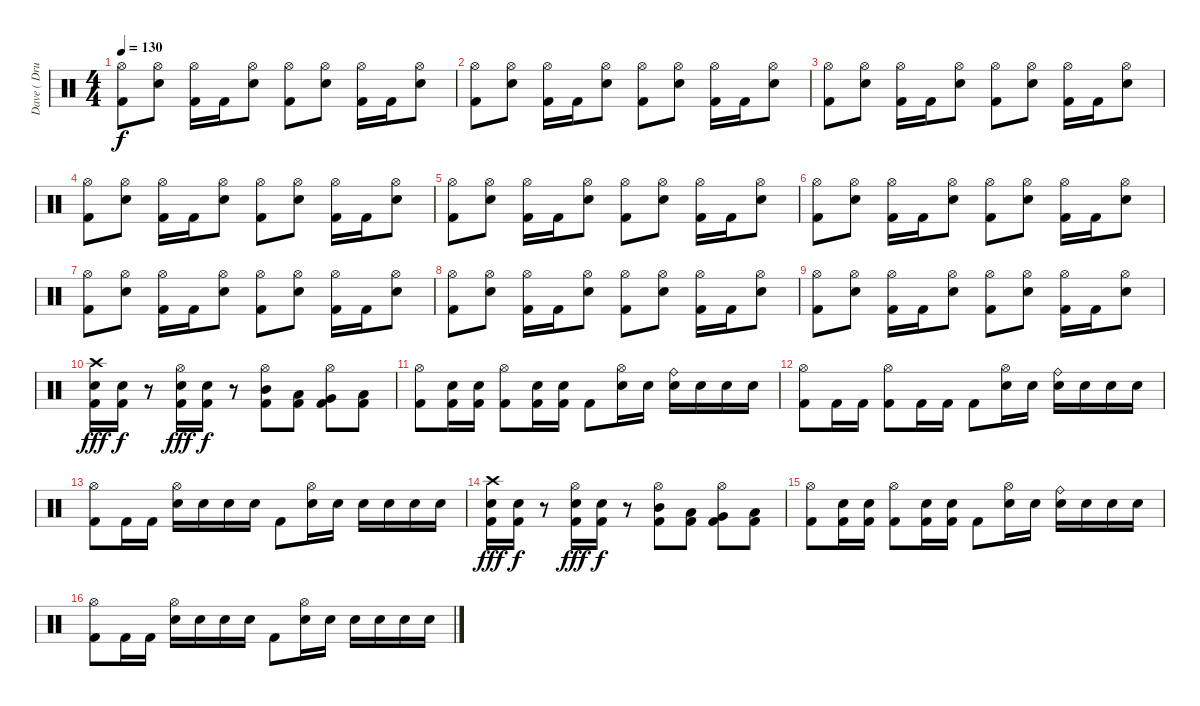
\track ("Dave ( Drumm )" "Dave ( Dru") {instrument percussion}
\staff {score}
\articulation defaults
\ts (4 4)
\tempo 130
\clef neutral
\ks c
("Hi-Hat (open)" "Kick (hit) 2").8{dy f} ("Hi-Hat (open)" "Snare (hit) 2").8 ("Hi-Hat (open)" "Kick (hit) 2").16 "Kick (hit) 2".16 ("Hi-Hat (open)" "Snare (hit) 2").8 ("Hi-Hat (open)" "Kick (hit) 2").8 ("Hi-Hat (open)" "Snare (hit) 2").8 ("Hi-Hat (open)" "Kick (hit) 2").16 "Kick (hit) 2".16 ("Hi-Hat (open)" "Snare (hit) 2").8 |
("Hi-Hat (open)" "Kick (hit) 2").8 ("Hi-Hat (open)" "Snare (hit) 2").8 ("Hi-Hat (open)" "Kick (hit) 2").16 "Kick (hit) 2".16 ("Hi-Hat (open)" "Snare (hit) 2").8 ("Hi-Hat (open)" "Kick (hit) 2").8 ("Hi-Hat (open)" "Snare (hit) 2").8 ("Hi-Hat (open)" "Kick (hit) 2").16 "Kick (hit) 2".16 ("Hi-Hat (open)" "Snare (hit) 2").8 |
("Hi-Hat (open)" "Kick (hit) 2").8 ("Hi-Hat (open)" "Snare (hit) 2").8 ("Hi-Hat (open)" "Kick (hit) 2").16 "Kick (hit) 2".16 ("Hi-Hat (open)" "Snare (hit) 2").8 ("Hi-Hat (open)" "Kick (hit) 2").8 ("Hi-Hat (open)" "Snare (hit) 2").8 ("Hi-Hat (open)" "Kick (hit) 2").16 "Kick (hit) 2".16 ("Hi-Hat (open)" "Snare (hit) 2").8 |
("Hi-Hat (open)" "Kick (hit) 2").8 ("Hi-Hat (open)" "Snare (hit) 2").8 ("Hi-Hat (open)" "Kick (hit) 2").16 "Kick (hit) 2".16 ("Hi-Hat (open)" "Snare (hit) 2").8 ("Hi-Hat (open)" "Kick (hit) 2").8 ("Hi-Hat (open)" "Snare (hit) 2").8 ("Hi-Hat (open)" "Kick (hit) 2").16 "Kick (hit) 2".16 ("Hi-Hat (open)" "Snare (hit) 2").8 |
("Hi-Hat (open)" "Kick (hit) 2").8 ("Hi-Hat (open)" "Snare (hit) 2").8 ("Hi-Hat (open)" "Kick (hit) 2").16 "Kick (hit) 2".16 ("Hi-Hat (open)" "Snare (hit) 2").8 ("Hi-Hat (open)" "Kick (hit) 2").8 ("Hi-Hat (open)" "Snare (hit) 2").8 ("Hi-Hat (open)" "Kick (hit) 2").16 "Kick (hit) 2".16 ("Hi-Hat (open)" "Snare (hit) 2").8 |
("Hi-Hat (open)" "Kick (hit) 2").8 ("Hi-Hat (open)" "Snare (hit) 2").8 ("Hi-Hat (open)" "Kick (hit) 2").16 "Kick (hit) 2".16 ("Hi-Hat (open)" "Snare (hit) 2").8 ("Hi-Hat (open)" "Kick (hit) 2").8 ("Hi-Hat (open)" "Snare (hit) 2").8 ("Hi-Hat (open)" "Kick (hit) 2").16 "Kick (hit) 2".16 ("Hi-Hat (open)" "Snare (hit) 2").8 |
("Hi-Hat (open)" "Kick (hit) 2").8 ("Hi-Hat (open)" "Snare (hit) 2").8 ("Hi-Hat (open)" "Kick (hit) 2").16 "Kick (hit) 2".16 ("Hi-Hat (open)" "Snare (hit) 2").8 ("Hi-Hat (open)" "Kick (hit) 2").8 ("Hi-Hat (open)" "Snare (hit) 2").8 ("Hi-Hat (open)" "Kick (hit) 2").16 "Kick (hit) 2".16 ("Hi-Hat (open)" "Snare (hit) 2").8 |
("Hi-Hat (open)" "Kick (hit) 2").8 ("Hi-Hat (open)" "Snare (hit) 2").8 ("Hi-Hat (open)" "Kick (hit) 2").16 "Kick (hit) 2".16 ("Hi-Hat (open)" "Snare (hit) 2").8 ("Hi-Hat (open)" "Kick (hit) 2").8 ("Hi-Hat (open)" "Snare (hit) 2").8 ("Hi-Hat (open)" "Kick (hit) 2").16 "Kick (hit) 2".16 ("Hi-Hat (open)" "Snare (hit) 2").8 |
("Hi-Hat (open)" "Kick (hit) 2").8 ("Hi-Hat (open)" "Snare (hit) 2").8 ("Hi-Hat (open)" "Kick (hit) 2").16 "Kick (hit) 2".16 ("Hi-Hat (open)" "Snare (hit) 2").8 ("Hi-Hat (open)" "Kick (hit) 2").8 ("Hi-Hat (open)" "Snare (hit) 2").8 ("Hi-Hat (open)" "Kick (hit) 2").16 "Kick (hit) 2".16 ("Hi-Hat (open)" "Snare (hit) 2").8 |
("Crash high (hit)" "Snare (hit) 2" "Kick (hit) 2").16{dy fff} ("Snare (hit) 2" "Kick (hit) 2").16{dy f} r.8 ("Hi-Hat (open)" "Snare (hit) 2" "Kick (hit) 2").16{dy fff} ("Snare (hit) 2" "Kick (hit) 2").16{dy f} r.8 ("Hi-Hat (open)" "Mid Tom (hit)" "Kick (hit) 2").8 ("Low Tom (hit)" "Kick (hit) 2").8 ("Hi-Hat (open)" "Very Low Tom (hit)" "Kick (hit) 2").8 ("Low Floor Tom (hit)" "Kick (hit) 2").8 |
("Hi-Hat (open)" "Kick (hit) 2").8 ("Snare (hit) 2" "Kick (hit) 2").16 ("Snare (hit) 2" "Kick (hit) 2").16 ("Hi-Hat (open)" "Kick (hit) 2").8 ("Snare (hit) 2" "Kick (hit) 2").16 ("Snare (hit) 2" "Kick (hit) 2").16 "Kick (hit) 2".8 ("Hi-Hat (open)" "Snare (hit) 2").16 "Snare (hit) 2".16 ("Ride (bell)" "Snare (hit) 2").16 "Snare (hit) 2".16 "Snare (hit) 2".16 "Snare (hit) 2".16 |
("Hi-Hat (open)" "Kick (hit) 2").8 "Kick (hit) 2".16 "Kick (hit) 2".16 ("Hi-Hat (open)" "Kick (hit) 2").8 "Kick (hit) 2".16 "Kick (hit) 2".16 "Kick (hit) 2".8 ("Hi-Hat (open)" "Snare (hit) 2").16 "Snare (hit) 2".16 ("Ride (bell)" "Snare (hit) 2").16 "Snare (hit) 2".16 "Snare (hit) 2".16 "Snare (hit) 2".16 |
("Hi-Hat (open)" "Kick (hit) 2").8 "Kick (hit) 2".16 "Kick (hit) 2".16 ("Hi-Hat (open)" "Snare (hit) 2").16 "Snare (hit) 2".16 "Snare (hit) 2".16 "Snare (hit) 2".16 "Kick (hit) 2".8 ("Hi-Hat (open)" "Snare (hit) 2").16 "Snare (hit) 2".16 "Snare (hit) 2".16 "Snare (hit) 2".16 "Snare (hit) 2".16 "Snare (hit) 2".16 |
("Crash high (hit)" "Snare (hit) 2" "Kick (hit) 2").16{dy fff} ("Snare (hit) 2" "Kick (hit) 2").16{dy f} r.8 ("Hi-Hat (open)" "Snare (hit) 2" "Kick (hit) 2").16{dy fff} ("Snare (hit) 2" "Kick (hit) 2").16{dy f} r.8 ("Hi-Hat (open)" "Mid Tom (hit)" "Kick (hit) 2").8 ("Low Tom (hit)" "Kick (hit) 2").8 ("Hi-Hat (open)" "Very Low Tom (hit)" "Kick (hit) 2").8 ("Low Floor Tom (hit)" "Kick (hit) 2").8 |
("Hi-Hat (open)" "Kick (hit) 2").8 ("Snare (hit) 2" "Kick (hit) 2").16 ("Snare (hit) 2" "Kick (hit) 2").16 ("Hi-Hat (open)" "Kick (hit) 2").8 ("Snare (hit) 2" "Kick (hit) 2").16 ("Snare (hit) 2" "Kick (hit) 2").16 "Kick (hit) 2".8 ("Hi-Hat (open)" "Snare (hit) 2").16 "Snare (hit) 2".16 ("Ride (bell)" "Snare (hit) 2").16 "Snare (hit) 2".16 "Snare (hit) 2".16 "Snare (hit) 2".16 |
("Hi-Hat (open)" "Kick (hit) 2").8 "Kick (hit) 2".16 "Kick (hit) 2".16 ("Hi-Hat (open)" "Snare (hit) 2").16 "Snare (hit) 2".16 "Snare (hit) 2".16 "Snare (hit) 2".16 "Kick (hit) 2".8 ("Hi-Hat (open)" "Snare (hit) 2").16 "Snare (hit) 2".16 "Snare (hit) 2".16 "Snare (hit) 2".16 "Snare (hit) 2".16 "Snare (hit) 2".16
